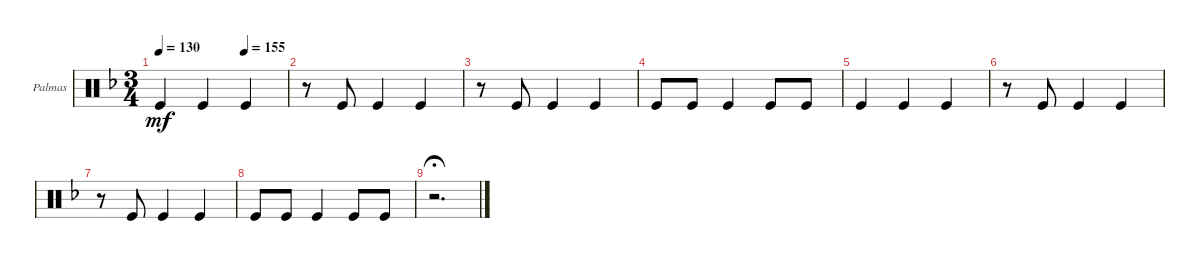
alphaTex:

\defaultSystemsLayout 4
\bracketExtendMode groupsimilarinstruments
\firstSystemTrackNameOrientation horizontal
\otherSystemsTrackNameOrientation horizontal
\track ("Palmas" "Palmas") {instrument percussion}
\staff {score}
\articulation defaults
\ts (3 4)
\tempo 130
\tempo (155 0.666667)
\clef neutral
\ks f "Kick (hit)".4{dy mf} "Kick (hit)".4 "Kick (hit)".4
|
r.8 "Kick (hit)".8 "Kick (hit)".4 "Kick (hit)".4 |
r.8 "Kick (hit)".8 "Kick (hit)".4 "Kick (hit)".4 |
"Kick (hit)".8 "Kick (hit)".8 "Kick (hit)".4 "Kick (hit)".8 "Kick (hit)".8 |
\scale
0.190865 "Kick (hit)".4 "Kick (hit)".4 "Kick (hit)".4 |
\scale
0.17292 r.8 "Kick (hit)".8 "Kick (hit)".4 "Kick (hit)".4 |
\scale
0.17292 r.8 "Kick (hit)".8 "Kick (hit)".4 "Kick (hit)".4 |
\scale
0.189233 "Kick (hit)".8 "Kick (hit)".8 "Kick (hit)".4 "Kick (hit)".8 "Kick (hit)".8 |
\scale
0.091354 r.2{d fermata (medium 1)}
